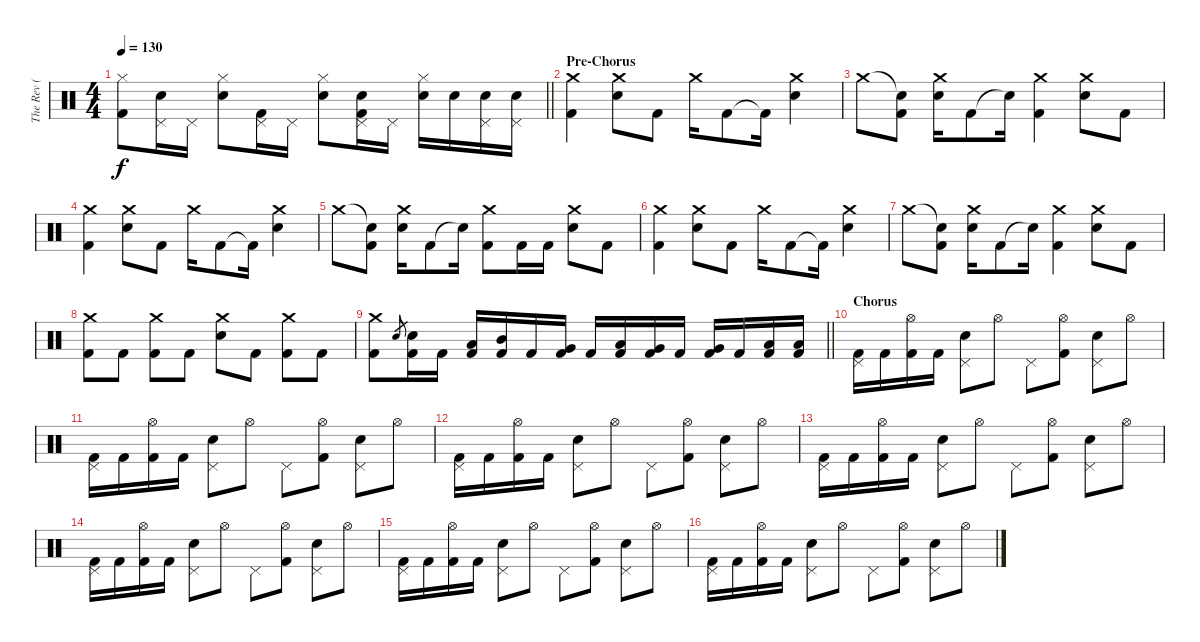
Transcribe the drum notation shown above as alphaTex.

\track ("The Rev ( Drums )" "The Rev ( ") {instrument percussion}
\staff {score}
\articulation defaults
\ts (4 4)
\tempo 130
\clef neutral
\barLineRight lightlight
\ks c
("Hi-Hat (closed)" "Kick (hit) 2").8{dy f} ("Pedal Hi-Hat (hit)" "Snare (hit) 2").16 "Pedal Hi-Hat (hit)".16 ("Hi-Hat (closed)" "Snare (hit) 2").8 ("Pedal Hi-Hat (hit)" "Kick (hit) 2").16 "Pedal Hi-Hat (hit)".16 ("Hi-Hat (closed)" "Snare (hit) 2").8 ("Pedal Hi-Hat (hit)" "Snare (hit) 2" "Kick (hit) 2").16 "Pedal Hi-Hat (hit)".16 ("Hi-Hat (closed)" "Snare (hit) 2").16 "Snare (hit) 2".16 ("Pedal Hi-Hat (hit)" "Snare (hit) 2").16 ("Pedal Hi-Hat (hit)" "Snare (hit) 2").16 |
\section ("" "Pre-Chorus")
("Crash medium (hit)" "Kick (hit) 2").4 ("Crash medium (hit)" "Snare (hit) 2").8 "Kick (hit) 2".8 "Crash medium (hit)".16 "Kick (hit) 2".8 "Kick (hit) 2"{t}.16 ("Crash medium (hit)" "Snare (hit) 2").4 |
"Crash medium (hit)".8 ("Snare (hit)"{t} "Kick (hit) 2").8 ("Crash medium (hit)" "Snare (hit) 2").16 "Kick (hit) 2".8 "Snare (hit)"{t}.16 ("Crash medium (hit)" "Kick (hit) 2").4 ("Crash medium (hit)" "Snare (hit) 2").8 "Kick (hit) 2".8 |
("Crash medium (hit)" "Kick (hit) 2").4 ("Crash medium (hit)" "Snare (hit) 2").8 "Kick (hit) 2".8 "Crash medium (hit)".16 "Kick (hit) 2".8 "Kick (hit) 2"{t}.16 ("Crash medium (hit)" "Snare (hit) 2").4 |
"Crash medium (hit)".8 ("Snare (hit)"{t} "Kick (hit) 2").8 ("Crash medium (hit)" "Snare (hit) 2").16 "Kick (hit) 2".8 "Snare (hit)"{t}.16 ("Crash medium (hit)" "Kick (hit) 2").8 "Kick (hit) 2".16 "Kick (hit) 2".16 ("Crash medium (hit)" "Snare (hit) 2").8 "Kick (hit) 2".8 |
("Crash medium (hit)" "Kick (hit) 2").4 ("Crash medium (hit)" "Snare (hit) 2").8 "Kick (hit) 2".8 "Crash medium (hit)".16 "Kick (hit) 2".8 "Kick (hit) 2"{t}.16 ("Crash medium (hit)" "Snare (hit) 2").4 |
"Crash medium (hit)".8 ("Snare (hit)"{t} "Kick (hit) 2").8 ("Crash medium (hit)" "Snare (hit) 2").16 "Kick (hit) 2".8 "Snare (hit)"{t}.16 ("Crash medium (hit)" "Kick (hit) 2").4 ("Crash medium (hit)" "Snare (hit) 2").8 "Kick (hit) 2".8 |
("Crash medium (hit)" "Kick (hit) 2").8 "Kick (hit) 2".8 ("Crash medium (hit)" "Kick (hit) 2").8 "Kick (hit) 2".8 ("Crash medium (hit)" "Snare (hit) 2").8 "Kick (hit) 2".8 ("Crash medium (hit)" "Kick (hit) 2").8 "Kick (hit) 2".8 |
\barLineRight lightlight
("Crash medium (hit)" "Kick (hit) 2").8 "Snare (hit) 2".8{gr} ("Snare (hit) 2" "Kick (hit) 2").16 "Kick (hit) 2".16 ("Low Tom (hit)" "Kick (hit) 2").16 ("Mid Tom (hit)" "Kick (hit) 2").16 "Kick (hit) 2".16 ("Very Low Tom (hit)" "Kick (hit) 2").16 "Kick (hit) 2".16 ("Low Floor Tom (hit)" "Kick (hit) 2").16 ("Very Low Tom (hit)" "Kick (hit) 2").16 "Kick (hit) 2".16 ("Very Low Tom (hit)" "Kick (hit) 2").16 "Kick (hit) 2".16 ("Low Floor Tom (hit)" "Kick (hit) 2").16 ("Low Floor Tom (hit)" "Kick (hit) 2").16 |
\section ("" "Chorus")
("Pedal Hi-Hat (hit)" "Kick (hit) 2").16 "Kick (hit) 2".16 ("Hi-Hat (open)" "Kick (hit) 2").16 "Kick (hit) 2".16 ("Pedal Hi-Hat (hit)" "Snare (hit) 2").8 "Hi-Hat (open)".8 "Pedal Hi-Hat (hit)".8 ("Hi-Hat (open)" "Kick (hit) 2").8 ("Pedal Hi-Hat (hit)" "Snare (hit) 2").8 "Hi-Hat (open)".8 |
("Pedal Hi-Hat (hit)" "Kick (hit) 2").16 "Kick (hit) 2".16 ("Hi-Hat (open)" "Kick (hit) 2").16 "Kick (hit) 2".16 ("Pedal Hi-Hat (hit)" "Snare (hit) 2").8 "Hi-Hat (open)".8 "Pedal Hi-Hat (hit)".8 ("Hi-Hat (open)" "Kick (hit) 2").8 ("Pedal Hi-Hat (hit)" "Snare (hit) 2").8 "Hi-Hat (open)".8 |
("Pedal Hi-Hat (hit)" "Kick (hit) 2").16 "Kick (hit) 2".16 ("Hi-Hat (open)" "Kick (hit) 2").16 "Kick (hit) 2".16 ("Pedal Hi-Hat (hit)" "Snare (hit) 2").8 "Hi-Hat (open)".8 "Pedal Hi-Hat (hit)".8 ("Hi-Hat (open)" "Kick (hit) 2").8 ("Pedal Hi-Hat (hit)" "Snare (hit) 2").8 "Hi-Hat (open)".8 |
("Pedal Hi-Hat (hit)" "Kick (hit) 2").16 "Kick (hit) 2".16 ("Hi-Hat (open)" "Kick (hit) 2").16 "Kick (hit) 2".16 ("Pedal Hi-Hat (hit)" "Snare (hit) 2").8 "Hi-Hat (open)".8 "Pedal Hi-Hat (hit)".8 ("Hi-Hat (open)" "Kick (hit) 2").8 ("Pedal Hi-Hat (hit)" "Snare (hit) 2").8 "Hi-Hat (open)".8 |
("Pedal Hi-Hat (hit)" "Kick (hit) 2").16 "Kick (hit) 2".16 ("Hi-Hat (open)" "Kick (hit) 2").16 "Kick (hit) 2".16 ("Pedal Hi-Hat (hit)" "Snare (hit) 2").8 "Hi-Hat (open)".8 "Pedal Hi-Hat (hit)".8 ("Hi-Hat (open)" "Kick (hit) 2").8 ("Pedal Hi-Hat (hit)" "Snare (hit) 2").8 "Hi-Hat (open)".8 |
("Pedal Hi-Hat (hit)" "Kick (hit) 2").16 "Kick (hit) 2".16 ("Hi-Hat (open)" "Kick (hit) 2").16 "Kick (hit) 2".16 ("Pedal Hi-Hat (hit)" "Snare (hit) 2").8 "Hi-Hat (open)".8 "Pedal Hi-Hat (hit)".8 ("Hi-Hat (open)" "Kick (hit) 2").8 ("Pedal Hi-Hat (hit)" "Snare (hit) 2").8 "Hi-Hat (open)".8 |
("Pedal Hi-Hat (hit)" "Kick (hit) 2").16 "Kick (hit) 2".16 ("Hi-Hat (open)" "Kick (hit) 2").16 "Kick (hit) 2".16 ("Pedal Hi-Hat (hit)" "Snare (hit) 2").8 "Hi-Hat (open)".8 "Pedal Hi-Hat (hit)".8 ("Hi-Hat (open)" "Kick (hit) 2").8 ("Pedal Hi-Hat (hit)" "Snare (hit) 2").8 "Hi-Hat (open)".8
